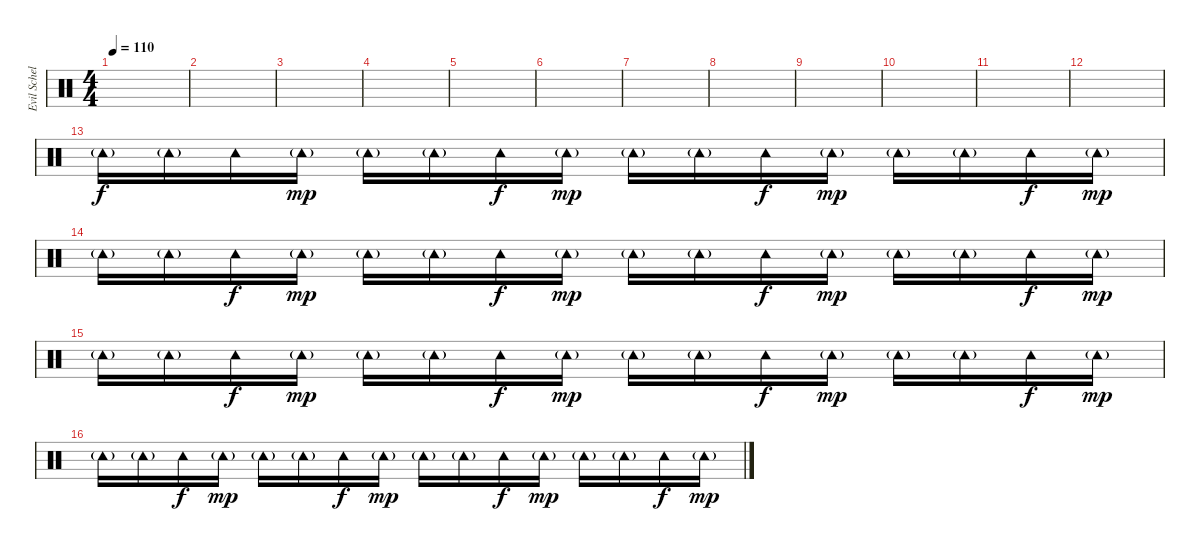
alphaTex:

\track ("Evil Schellenkranz" "Evil Schel") {instrument percussion}
\staff {score}
\articulation defaults
\ts (4 4)
\tempo 110
\clef neutral
\ks c
|
|
|
|
|
|
|
|
|
|
|
|
"Tambourine (hit)"{g}.16 "Tambourine (hit)"{g}.16 "Tambourine (hit)".16{dy f} "Tambourine (hit)"{g}.16{dy mp} "Tambourine (hit)"{g}.16 "Tambourine (hit)"{g}.16 "Tambourine (hit)".16{dy f} "Tambourine (hit)"{g}.16{dy mp} "Tambourine (hit)"{g}.16 "Tambourine (hit)"{g}.16 "Tambourine (hit)".16{dy f} "Tambourine (hit)"{g}.16{dy mp} "Tambourine (hit)"{g}.16 "Tambourine (hit)"{g}.16 "Tambourine (hit)".16{dy f} "Tambourine (hit)"{g}.16{dy mp} |
"Tambourine (hit)"{g}.16 "Tambourine (hit)"{g}.16 "Tambourine (hit)".16{dy f} "Tambourine (hit)"{g}.16{dy mp} "Tambourine (hit)"{g}.16 "Tambourine (hit)"{g}.16 "Tambourine (hit)".16{dy f} "Tambourine (hit)"{g}.16{dy mp} "Tambourine (hit)"{g}.16 "Tambourine (hit)"{g}.16 "Tambourine (hit)".16{dy f} "Tambourine (hit)"{g}.16{dy mp} "Tambourine (hit)"{g}.16 "Tambourine (hit)"{g}.16 "Tambourine (hit)".16{dy f} "Tambourine (hit)"{g}.16{dy mp} |
"Tambourine (hit)"{g}.16 "Tambourine (hit)"{g}.16 "Tambourine (hit)".16{dy f} "Tambourine (hit)"{g}.16{dy mp} "Tambourine (hit)"{g}.16 "Tambourine (hit)"{g}.16 "Tambourine (hit)".16{dy f} "Tambourine (hit)"{g}.16{dy mp} "Tambourine (hit)"{g}.16 "Tambourine (hit)"{g}.16 "Tambourine (hit)".16{dy f} "Tambourine (hit)"{g}.16{dy mp} "Tambourine (hit)"{g}.16 "Tambourine (hit)"{g}.16 "Tambourine (hit)".16{dy f} "Tambourine (hit)"{g}.16{dy mp} |
"Tambourine (hit)"{g}.16 "Tambourine (hit)"{g}.16 "Tambourine (hit)".16{dy f} "Tambourine (hit)"{g}.16{dy mp} "Tambourine (hit)"{g}.16 "Tambourine (hit)"{g}.16 "Tambourine (hit)".16{dy f} "Tambourine (hit)"{g}.16{dy mp} "Tambourine (hit)"{g}.16 "Tambourine (hit)"{g}.16 "Tambourine (hit)".16{dy f} "Tambourine (hit)"{g}.16{dy mp} "Tambourine (hit)"{g}.16 "Tambourine (hit)"{g}.16 "Tambourine (hit)".16{dy f} "Tambourine (hit)"{g}.16{dy mp}
